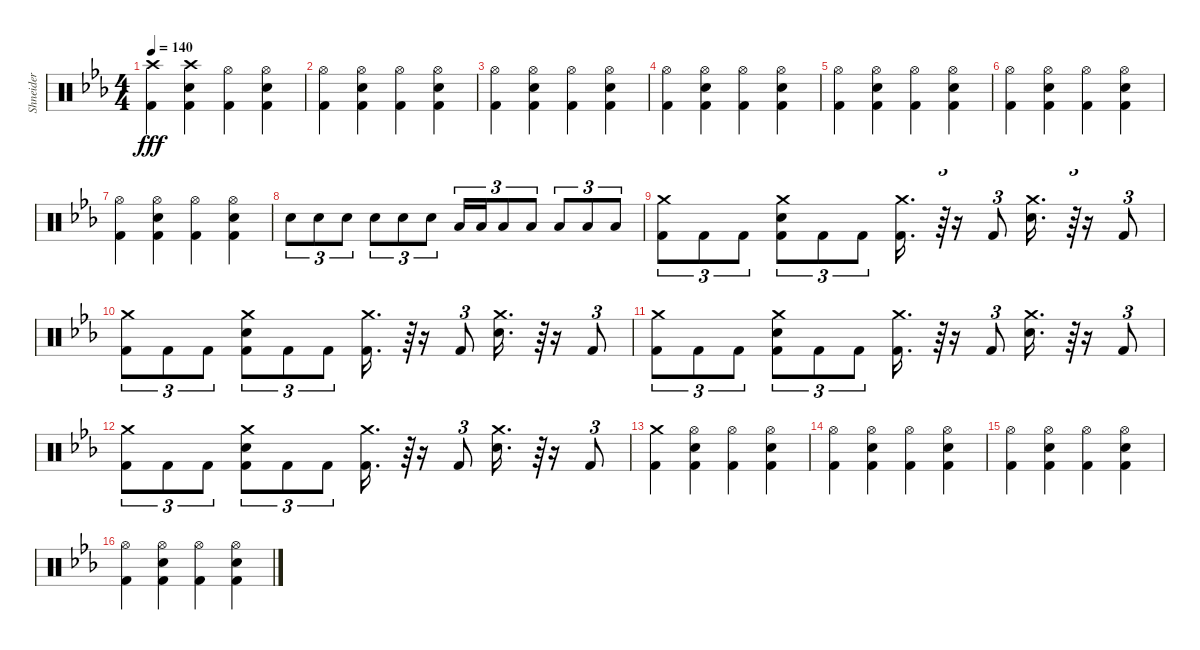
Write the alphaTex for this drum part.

\track ("Shneider" "Shneider") {instrument percussion}
\staff {score}
\articulation defaults
\ts (4 4)
\tempo 140
\clef neutral
\ks eb
("Crash high (hit)" "Kick (hit) 2").4{dy fff} ("Crash high (hit)" "Snare (hit) 2" "Kick (hit) 2").4 ("Hi-Hat (open)" "Kick (hit) 2").4 ("Hi-Hat (open)" "Snare (hit) 2" "Kick (hit) 2").4 |
("Hi-Hat (open)" "Kick (hit) 2").4 ("Hi-Hat (open)" "Snare (hit) 2" "Kick (hit) 2").4 ("Hi-Hat (open)" "Kick (hit) 2").4 ("Hi-Hat (open)" "Snare (hit) 2" "Kick (hit) 2").4 |
("Hi-Hat (open)" "Kick (hit) 2").4 ("Hi-Hat (open)" "Snare (hit) 2" "Kick (hit) 2").4 ("Hi-Hat (open)" "Kick (hit) 2").4 ("Hi-Hat (open)" "Snare (hit) 2" "Kick (hit) 2").4 |
("Hi-Hat (open)" "Kick (hit) 2").4 ("Hi-Hat (open)" "Snare (hit) 2" "Kick (hit) 2").4 ("Hi-Hat (open)" "Kick (hit) 2").4 ("Hi-Hat (open)" "Snare (hit) 2" "Kick (hit) 2").4 |
("Hi-Hat (open)" "Kick (hit) 2").4 ("Hi-Hat (open)" "Snare (hit) 2" "Kick (hit) 2").4 ("Hi-Hat (open)" "Kick (hit) 2").4 ("Hi-Hat (open)" "Snare (hit) 2" "Kick (hit) 2").4 |
("Hi-Hat (open)" "Kick (hit) 2").4 ("Hi-Hat (open)" "Snare (hit) 2" "Kick (hit) 2").4 ("Hi-Hat (open)" "Kick (hit) 2").4 ("Hi-Hat (open)" "Snare (hit) 2" "Kick (hit) 2").4 |
("Hi-Hat (open)" "Kick (hit) 2").4 ("Hi-Hat (open)" "Snare (hit) 2" "Kick (hit) 2").4 ("Hi-Hat (open)" "Kick (hit) 2").4 ("Hi-Hat (open)" "Snare (hit) 2" "Kick (hit) 2").4 |
"Snare (hit) 2".8{tu (3 2)} "Snare (hit) 2".8{tu (3 2)} "Snare (hit) 2".8{tu (3 2)} "Snare (hit) 2".8{tu (3 2)} "Snare (hit) 2".8{tu (3 2)} "Snare (hit) 2".8{tu (3 2)} "Low Tom (hit)".16{tu (3 2)} "Low Tom (hit)".16{tu (3 2)} "Low Tom (hit)".8{tu (3 2)} "Low Tom (hit)".8{tu (3 2)} "Low Tom (hit)".8{tu (3 2)} "Low Tom (hit)".8{tu (3 2)} "Low Tom (hit)".8{tu (3 2)} |
("Crash medium (hit)" "Kick (hit) 2").8{tu (3 2)} "Kick (hit) 2".8{tu (3 2)} "Kick (hit) 2".8{tu (3 2)} ("Crash medium (hit)" "Snare (hit) 2" "Kick (hit) 2").8{tu (3 2)} "Kick (hit) 2".8{tu (3 2)} "Kick (hit) 2".8{tu (3 2)} ("Crash medium (hit)" "Kick (hit) 2").16{d} r.64{tu (3 2)} r.16 "Kick (hit) 2".8{tu (3 2)} ("Crash medium (hit)" "Snare (hit) 2").16{d} r.64{tu (3 2)} r.16 "Kick (hit) 2".8{tu (3 2)} |
("Crash medium (hit)" "Kick (hit) 2").8{tu (3 2)} "Kick (hit) 2".8{tu (3 2)} "Kick (hit) 2".8{tu (3 2)} ("Crash medium (hit)" "Snare (hit) 2" "Kick (hit) 2").8{tu (3 2)} "Kick (hit) 2".8{tu (3 2)} "Kick (hit) 2".8{tu (3 2)} ("Crash medium (hit)" "Kick (hit) 2").16{d} r.64{tu (3 2)} r.16 "Kick (hit) 2".8{tu (3 2)} ("Crash medium (hit)" "Snare (hit) 2").16{d} r.64{tu (3 2)} r.16 "Kick (hit) 2".8{tu (3 2)} |
("Crash medium (hit)" "Kick (hit) 2").8{tu (3 2)} "Kick (hit) 2".8{tu (3 2)} "Kick (hit) 2".8{tu (3 2)} ("Crash medium (hit)" "Snare (hit) 2" "Kick (hit) 2").8{tu (3 2)} "Kick (hit) 2".8{tu (3 2)} "Kick (hit) 2".8{tu (3 2)} ("Crash medium (hit)" "Kick (hit) 2").16{d} r.64{tu (3 2)} r.16 "Kick (hit) 2".8{tu (3 2)} ("Crash medium (hit)" "Snare (hit) 2").16{d} r.64{tu (3 2)} r.16 "Kick (hit) 2".8{tu (3 2)} |
("Crash medium (hit)" "Kick (hit) 2").8{tu (3 2)} "Kick (hit) 2".8{tu (3 2)} "Kick (hit) 2".8{tu (3 2)} ("Crash medium (hit)" "Snare (hit) 2" "Kick (hit) 2").8{tu (3 2)} "Kick (hit) 2".8{tu (3 2)} "Kick (hit) 2".8{tu (3 2)} ("Crash medium (hit)" "Kick (hit) 2").16{d} r.64{tu (3 2)} r.16 "Kick (hit) 2".8{tu (3 2)} ("Crash medium (hit)" "Snare (hit) 2").16{d} r.64{tu (3 2)} r.16 "Kick (hit) 2".8{tu (3 2)} |
("Crash medium (hit)" "Kick (hit) 2").4 ("Hi-Hat (open)" "Snare (hit) 2" "Kick (hit) 2").4 ("Hi-Hat (open)" "Kick (hit) 2").4 ("Hi-Hat (open)" "Snare (hit) 2" "Kick (hit) 2").4 |
("Hi-Hat (open)" "Kick (hit) 2").4 ("Hi-Hat (open)" "Snare (hit) 2" "Kick (hit) 2").4 ("Hi-Hat (open)" "Kick (hit) 2").4 ("Hi-Hat (open)" "Snare (hit) 2" "Kick (hit) 2").4 |
("Hi-Hat (open)" "Kick (hit) 2").4 ("Hi-Hat (open)" "Snare (hit) 2" "Kick (hit) 2").4 ("Hi-Hat (open)" "Kick (hit) 2").4 ("Hi-Hat (open)" "Snare (hit) 2" "Kick (hit) 2").4 |
("Hi-Hat (open)" "Kick (hit) 2").4 ("Hi-Hat (open)" "Snare (hit) 2" "Kick (hit) 2").4 ("Hi-Hat (open)" "Kick (hit) 2").4 ("Hi-Hat (open)" "Snare (hit) 2" "Kick (hit) 2").4
